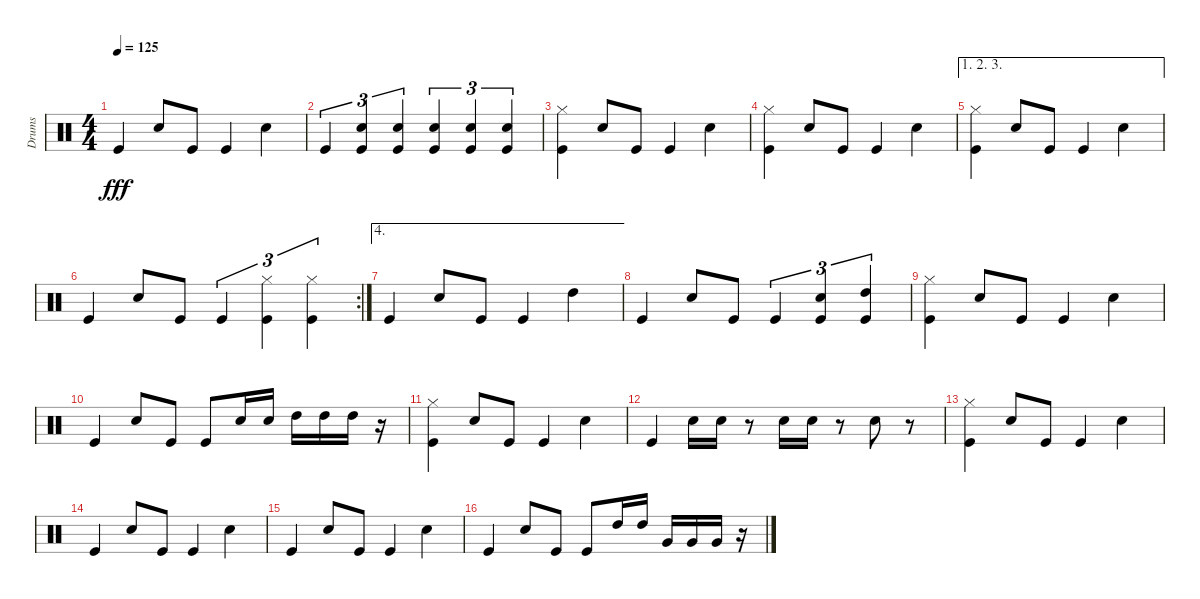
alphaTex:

\track ("Drums" "Drums") {instrument percussion}
\staff {score}
\articulation defaults
\ts (4 4)
\tempo 125
\clef neutral
\ks c "Kick (hit)".4{dy fff} "Snare (hit) 2".8 "Kick (hit)".8 "Kick (hit)".4 "Snare (hit) 2".4
|
"Kick (hit)".4{tu (3 2)} ("Snare (hit) 2" "Kick (hit)").4{tu (3 2)} ("Snare (hit) 2" "Kick (hit)").4{tu (3 2)} ("Snare (hit) 2" "Kick (hit)").4{tu (3 2)} ("Snare (hit) 2" "Kick (hit)").4{tu (3 2)} ("Snare (hit) 2" "Kick (hit)").4{tu (3 2)} |
("Hi-Hat (closed)" "Kick (hit)").4 "Snare (hit) 2".8 "Kick (hit)".8 "Kick (hit)".4 "Snare (hit) 2".4 |
("Hi-Hat (closed)" "Kick (hit)").4 "Snare (hit) 2".8 "Kick (hit)".8 "Kick (hit)".4 "Snare (hit) 2".4 |
\ae (1 2 3)
("Hi-Hat (closed)" "Kick (hit)").4 "Snare (hit) 2".8 "Kick (hit)".8 "Kick (hit)".4 "Snare (hit) 2".4 |
\rc 2 "Kick (hit)".4 "Snare (hit) 2".8 "Kick (hit)".8 "Kick (hit)".4{tu (3 2)}
("Hi-Hat (closed)" "Kick (hit)").4{tu (3 2)} ("Hi-Hat (closed)" "Kick (hit)").4{tu (3 2)} |
\ae 4 "Kick (hit)".4 "Snare (hit) 2".8 "Kick (hit)".8 "Kick (hit)".4 "High Tom (hit)".4
|
"Kick (hit)".4 "Snare (hit) 2".8 "Kick (hit)".8 "Kick (hit)".4{tu (3 2)} ("Snare (hit) 2" "Kick (hit)").4{tu (3 2)} ("High Tom (hit)" "Kick (hit)").4{tu (3 2)} |
("Hi-Hat (closed)" "Kick (hit)").4 "Snare (hit) 2".8 "Kick (hit)".8 "Kick (hit)".4 "Snare (hit) 2".4 |
"Kick (hit)".4 "Snare (hit) 2".8 "Kick (hit)".8 "Kick (hit)".8 "Snare (hit) 2".16 "Snare (hit) 2".16 "High Tom (hit)".16 "High Tom (hit)".16 "High Tom (hit)".16 r.16 |
("Hi-Hat (closed)" "Kick (hit)").4 "Snare (hit) 2".8 "Kick (hit)".8 "Kick (hit)".4 "Snare (hit) 2".4 |
"Kick (hit)".4 "Snare (hit) 2".16 "Snare (hit) 2".16 r.8 "Snare (hit) 2".16 "Snare (hit) 2".16 r.8 "Snare (hit) 2".8 r.8 |
("Hi-Hat (closed)" "Kick (hit)").4 "Snare (hit) 2".8 "Kick (hit)".8 "Kick (hit)".4 "Snare (hit) 2".4 |
"Kick (hit)".4 "Snare (hit) 2".8 "Kick (hit)".8 "Kick (hit)".4 "Snare (hit) 2".4 |
"Kick (hit)".4 "Snare (hit) 2".8 "Kick (hit)".8 "Kick (hit)".4 "Snare (hit) 2".4 |
"Kick (hit)".4 "Snare (hit) 2".8 "Kick (hit)".8 "Kick (hit)".8 "High Tom (hit)".16 "High Tom (hit)".16 "Very Low Tom (hit)".16 "Very Low Tom (hit)".16 "Very Low Tom (hit)".16 r.16
